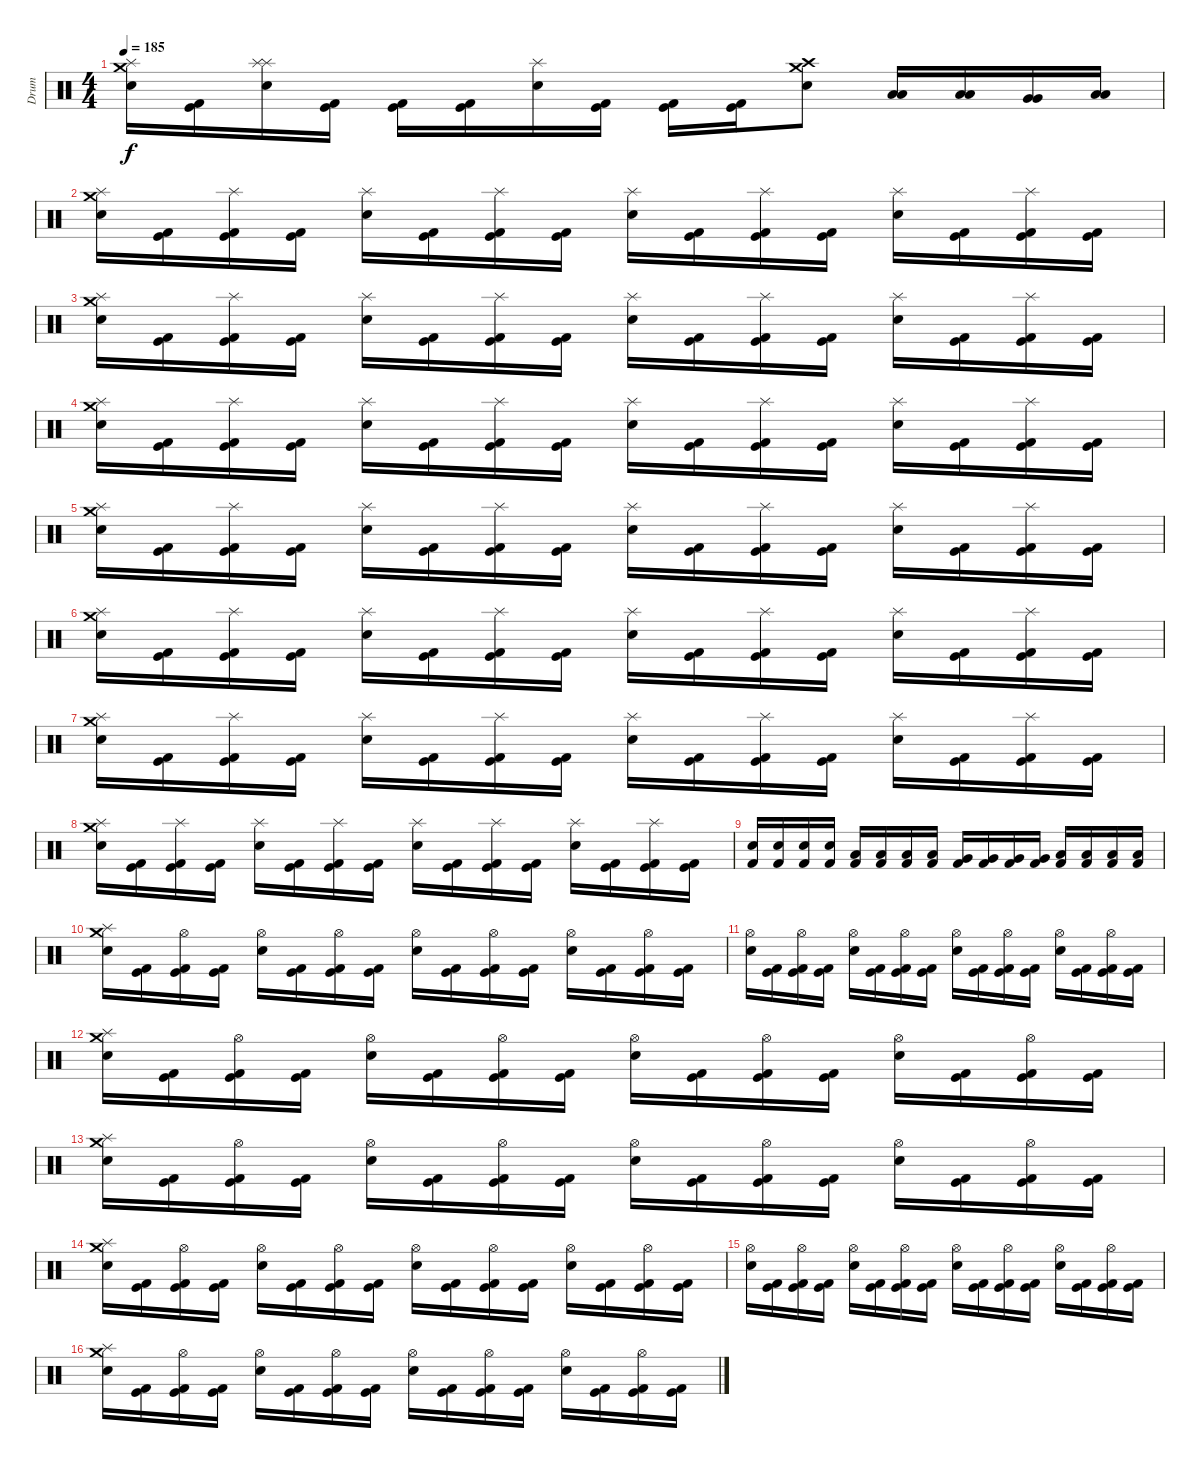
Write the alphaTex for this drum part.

\track ("Drum" "Drum") {instrument percussion}
\staff {score}
\articulation defaults
\ts (4 4)
\tempo 185
\clef neutral
\ks c
("Crash medium (hit)" "Splash (hit)" "Snare (hit) 2").16{dy f} ("Kick (hit)" "Kick (hit) 2").16 ("Splash (hit)" "Splash (hit)" "Snare (hit) 2").16 ("Kick (hit)" "Kick (hit) 2").16 ("Kick (hit)" "Kick (hit) 2").16 ("Kick (hit)" "Kick (hit) 2").16 ("Splash (hit)" "Snare (hit) 2").16 ("Kick (hit)" "Kick (hit) 2").16 ("Kick (hit)" "Kick (hit) 2").16 ("Kick (hit)" "Kick (hit) 2").16 ("Crash high (hit)" "Crash medium (hit)" "Snare (hit) 2").8 ("Low Tom (hit)" "Low Tom (hit)").16 ("Low Tom (hit)" "Low Tom (hit)").16 ("Very Low Tom (hit)" "Very Low Tom (hit)").16 ("Low Floor Tom (hit)" "Low Floor Tom (hit)").16 |
("Crash medium (hit)" "Splash (hit)" "Snare (hit) 2").16 ("Kick (hit)" "Kick (hit) 2").16 ("Splash (hit)" "Kick (hit)" "Kick (hit) 2").16 ("Kick (hit)" "Kick (hit) 2").16 ("Splash (hit)" "Snare (hit) 2").16 ("Kick (hit)" "Kick (hit) 2").16 ("Splash (hit)" "Kick (hit)" "Kick (hit) 2").16 ("Kick (hit)" "Kick (hit) 2").16 ("Splash (hit)" "Snare (hit) 2").16 ("Kick (hit)" "Kick (hit) 2").16 ("Splash (hit)" "Kick (hit)" "Kick (hit) 2").16 ("Kick (hit)" "Kick (hit) 2").16 ("Splash (hit)" "Snare (hit) 2").16 ("Kick (hit)" "Kick (hit) 2").16 ("Splash (hit)" "Kick (hit)" "Kick (hit) 2").16 ("Kick (hit)" "Kick (hit) 2").16 |
("Crash medium (hit)" "Splash (hit)" "Snare (hit) 2").16 ("Kick (hit)" "Kick (hit) 2").16 ("Splash (hit)" "Kick (hit)" "Kick (hit) 2").16 ("Kick (hit)" "Kick (hit) 2").16 ("Splash (hit)" "Snare (hit) 2").16 ("Kick (hit)" "Kick (hit) 2").16 ("Splash (hit)" "Kick (hit)" "Kick (hit) 2").16 ("Kick (hit)" "Kick (hit) 2").16 ("Splash (hit)" "Snare (hit) 2").16 ("Kick (hit)" "Kick (hit) 2").16 ("Splash (hit)" "Kick (hit)" "Kick (hit) 2").16 ("Kick (hit)" "Kick (hit) 2").16 ("Splash (hit)" "Snare (hit) 2").16 ("Kick (hit)" "Kick (hit) 2").16 ("Splash (hit)" "Kick (hit)" "Kick (hit) 2").16 ("Kick (hit)" "Kick (hit) 2").16 |
("Crash medium (hit)" "Splash (hit)" "Snare (hit) 2").16 ("Kick (hit)" "Kick (hit) 2").16 ("Splash (hit)" "Kick (hit)" "Kick (hit) 2").16 ("Kick (hit)" "Kick (hit) 2").16 ("Splash (hit)" "Snare (hit) 2").16 ("Kick (hit)" "Kick (hit) 2").16 ("Splash (hit)" "Kick (hit)" "Kick (hit) 2").16 ("Kick (hit)" "Kick (hit) 2").16 ("Splash (hit)" "Snare (hit) 2").16 ("Kick (hit)" "Kick (hit) 2").16 ("Splash (hit)" "Kick (hit)" "Kick (hit) 2").16 ("Kick (hit)" "Kick (hit) 2").16 ("Splash (hit)" "Snare (hit) 2").16 ("Kick (hit)" "Kick (hit) 2").16 ("Splash (hit)" "Kick (hit)" "Kick (hit) 2").16 ("Kick (hit)" "Kick (hit) 2").16 |
("Crash medium (hit)" "Splash (hit)" "Snare (hit) 2").16 ("Kick (hit)" "Kick (hit) 2").16 ("Splash (hit)" "Kick (hit)" "Kick (hit) 2").16 ("Kick (hit)" "Kick (hit) 2").16 ("Splash (hit)" "Snare (hit) 2").16 ("Kick (hit)" "Kick (hit) 2").16 ("Splash (hit)" "Kick (hit)" "Kick (hit) 2").16 ("Kick (hit)" "Kick (hit) 2").16 ("Splash (hit)" "Snare (hit) 2").16 ("Kick (hit)" "Kick (hit) 2").16 ("Splash (hit)" "Kick (hit)" "Kick (hit) 2").16 ("Kick (hit)" "Kick (hit) 2").16 ("Splash (hit)" "Snare (hit) 2").16 ("Kick (hit)" "Kick (hit) 2").16 ("Splash (hit)" "Kick (hit)" "Kick (hit) 2").16 ("Kick (hit)" "Kick (hit) 2").16 |
("Crash medium (hit)" "Splash (hit)" "Snare (hit) 2").16 ("Kick (hit)" "Kick (hit) 2").16 ("Splash (hit)" "Kick (hit)" "Kick (hit) 2").16 ("Kick (hit)" "Kick (hit) 2").16 ("Splash (hit)" "Snare (hit) 2").16 ("Kick (hit)" "Kick (hit) 2").16 ("Splash (hit)" "Kick (hit)" "Kick (hit) 2").16 ("Kick (hit)" "Kick (hit) 2").16 ("Splash (hit)" "Snare (hit) 2").16 ("Kick (hit)" "Kick (hit) 2").16 ("Splash (hit)" "Kick (hit)" "Kick (hit) 2").16 ("Kick (hit)" "Kick (hit) 2").16 ("Splash (hit)" "Snare (hit) 2").16 ("Kick (hit)" "Kick (hit) 2").16 ("Splash (hit)" "Kick (hit)" "Kick (hit) 2").16 ("Kick (hit)" "Kick (hit) 2").16 |
("Crash medium (hit)" "Splash (hit)" "Snare (hit) 2").16 ("Kick (hit)" "Kick (hit) 2").16 ("Splash (hit)" "Kick (hit)" "Kick (hit) 2").16 ("Kick (hit)" "Kick (hit) 2").16 ("Splash (hit)" "Snare (hit) 2").16 ("Kick (hit)" "Kick (hit) 2").16 ("Splash (hit)" "Kick (hit)" "Kick (hit) 2").16 ("Kick (hit)" "Kick (hit) 2").16 ("Splash (hit)" "Snare (hit) 2").16 ("Kick (hit)" "Kick (hit) 2").16 ("Splash (hit)" "Kick (hit)" "Kick (hit) 2").16 ("Kick (hit)" "Kick (hit) 2").16 ("Splash (hit)" "Snare (hit) 2").16 ("Kick (hit)" "Kick (hit) 2").16 ("Splash (hit)" "Kick (hit)" "Kick (hit) 2").16 ("Kick (hit)" "Kick (hit) 2").16 |
("Crash medium (hit)" "Splash (hit)" "Snare (hit) 2").16 ("Kick (hit)" "Kick (hit) 2").16 ("Splash (hit)" "Kick (hit)" "Kick (hit) 2").16 ("Kick (hit)" "Kick (hit) 2").16 ("Splash (hit)" "Snare (hit) 2").16 ("Kick (hit)" "Kick (hit) 2").16 ("Splash (hit)" "Kick (hit)" "Kick (hit) 2").16 ("Kick (hit)" "Kick (hit) 2").16 ("Splash (hit)" "Snare (hit) 2").16 ("Kick (hit)" "Kick (hit) 2").16 ("Splash (hit)" "Kick (hit)" "Kick (hit) 2").16 ("Kick (hit)" "Kick (hit) 2").16 ("Splash (hit)" "Snare (hit) 2").16 ("Kick (hit)" "Kick (hit) 2").16 ("Splash (hit)" "Kick (hit)" "Kick (hit) 2").16 ("Kick (hit)" "Kick (hit) 2").16 |
("Snare (hit) 2" "Kick (hit) 2").16 ("Snare (hit) 2" "Kick (hit) 2").16 ("Snare (hit) 2" "Kick (hit) 2").16 ("Snare (hit) 2" "Kick (hit) 2").16 ("Low Tom (hit)" "Kick (hit) 2").16 ("Low Tom (hit)" "Kick (hit) 2").16 ("Low Tom (hit)" "Kick (hit) 2").16 ("Low Tom (hit)" "Kick (hit) 2").16 ("Very Low Tom (hit)" "Kick (hit) 2").16 ("Very Low Tom (hit)" "Kick (hit) 2").16 ("Very Low Tom (hit)" "Kick (hit) 2").16 ("Very Low Tom (hit)" "Kick (hit) 2").16 ("Low Floor Tom (hit)" "Kick (hit) 2").16 ("Low Floor Tom (hit)" "Kick (hit) 2").16 ("Low Floor Tom (hit)" "Kick (hit) 2").16 ("Low Floor Tom (hit)" "Kick (hit) 2").16 |
("Crash medium (hit)" "Splash (hit)" "Snare (hit) 2").16 ("Kick (hit)" "Kick (hit) 2").16 ("Hi-Hat (open)" "Kick (hit)" "Kick (hit) 2").16 ("Kick (hit)" "Kick (hit) 2").16 ("Hi-Hat (open)" "Snare (hit) 2").16 ("Kick (hit)" "Kick (hit) 2").16 ("Hi-Hat (open)" "Kick (hit)" "Kick (hit) 2").16 ("Kick (hit)" "Kick (hit) 2").16 ("Hi-Hat (open)" "Snare (hit) 2").16 ("Kick (hit)" "Kick (hit) 2").16 ("Hi-Hat (open)" "Kick (hit)" "Kick (hit) 2").16 ("Kick (hit)" "Kick (hit) 2").16 ("Hi-Hat (open)" "Snare (hit) 2").16 ("Kick (hit)" "Kick (hit) 2").16 ("Hi-Hat (open)" "Kick (hit)" "Kick (hit) 2").16 ("Kick (hit)" "Kick (hit) 2").16 |
("Hi-Hat (open)" "Snare (hit) 2").16 ("Kick (hit)" "Kick (hit) 2").16 ("Hi-Hat (open)" "Kick (hit)" "Kick (hit) 2").16 ("Kick (hit)" "Kick (hit) 2").16 ("Hi-Hat (open)" "Snare (hit) 2").16 ("Kick (hit)" "Kick (hit) 2").16 ("Hi-Hat (open)" "Kick (hit)" "Kick (hit) 2").16 ("Kick (hit)" "Kick (hit) 2").16 ("Hi-Hat (open)" "Snare (hit) 2").16 ("Kick (hit)" "Kick (hit) 2").16 ("Hi-Hat (open)" "Kick (hit)" "Kick (hit) 2").16 ("Kick (hit)" "Kick (hit) 2").16 ("Hi-Hat (open)" "Snare (hit) 2").16 ("Kick (hit)" "Kick (hit) 2").16 ("Hi-Hat (open)" "Kick (hit)" "Kick (hit) 2").16 ("Kick (hit)" "Kick (hit) 2").16 |
("Crash medium (hit)" "Splash (hit)" "Snare (hit) 2").16 ("Kick (hit)" "Kick (hit) 2").16 ("Hi-Hat (open)" "Kick (hit)" "Kick (hit) 2").16 ("Kick (hit)" "Kick (hit) 2").16 ("Hi-Hat (open)" "Snare (hit) 2").16 ("Kick (hit)" "Kick (hit) 2").16 ("Hi-Hat (open)" "Kick (hit)" "Kick (hit) 2").16 ("Kick (hit)" "Kick (hit) 2").16 ("Hi-Hat (open)" "Snare (hit) 2").16 ("Kick (hit)" "Kick (hit) 2").16 ("Hi-Hat (open)" "Kick (hit)" "Kick (hit) 2").16 ("Kick (hit)" "Kick (hit) 2").16 ("Hi-Hat (open)" "Snare (hit) 2").16 ("Kick (hit)" "Kick (hit) 2").16 ("Hi-Hat (open)" "Kick (hit)" "Kick (hit) 2").16 ("Kick (hit)" "Kick (hit) 2").16 |
("Crash medium (hit)" "Splash (hit)" "Snare (hit) 2").16 ("Kick (hit)" "Kick (hit) 2").16 ("Hi-Hat (open)" "Kick (hit)" "Kick (hit) 2").16 ("Kick (hit)" "Kick (hit) 2").16 ("Hi-Hat (open)" "Snare (hit) 2").16 ("Kick (hit)" "Kick (hit) 2").16 ("Hi-Hat (open)" "Kick (hit)" "Kick (hit) 2").16 ("Kick (hit)" "Kick (hit) 2").16 ("Hi-Hat (open)" "Snare (hit) 2").16 ("Kick (hit)" "Kick (hit) 2").16 ("Hi-Hat (open)" "Kick (hit)" "Kick (hit) 2").16 ("Kick (hit)" "Kick (hit) 2").16 ("Hi-Hat (open)" "Snare (hit) 2").16 ("Kick (hit)" "Kick (hit) 2").16 ("Hi-Hat (open)" "Kick (hit)" "Kick (hit) 2").16 ("Kick (hit)" "Kick (hit) 2").16 |
("Crash medium (hit)" "Splash (hit)" "Snare (hit) 2").16 ("Kick (hit)" "Kick (hit) 2").16 ("Hi-Hat (open)" "Kick (hit)" "Kick (hit) 2").16 ("Kick (hit)" "Kick (hit) 2").16 ("Hi-Hat (open)" "Snare (hit) 2").16 ("Kick (hit)" "Kick (hit) 2").16 ("Hi-Hat (open)" "Kick (hit)" "Kick (hit) 2").16 ("Kick (hit)" "Kick (hit) 2").16 ("Hi-Hat (open)" "Snare (hit) 2").16 ("Kick (hit)" "Kick (hit) 2").16 ("Hi-Hat (open)" "Kick (hit)" "Kick (hit) 2").16 ("Kick (hit)" "Kick (hit) 2").16 ("Hi-Hat (open)" "Snare (hit) 2").16 ("Kick (hit)" "Kick (hit) 2").16 ("Hi-Hat (open)" "Kick (hit)" "Kick (hit) 2").16 ("Kick (hit)" "Kick (hit) 2").16 |
("Hi-Hat (open)" "Snare (hit) 2").16 ("Kick (hit)" "Kick (hit) 2").16 ("Hi-Hat (open)" "Kick (hit)" "Kick (hit) 2").16 ("Kick (hit)" "Kick (hit) 2").16 ("Hi-Hat (open)" "Snare (hit) 2").16 ("Kick (hit)" "Kick (hit) 2").16 ("Hi-Hat (open)" "Kick (hit)" "Kick (hit) 2").16 ("Kick (hit)" "Kick (hit) 2").16 ("Hi-Hat (open)" "Snare (hit) 2").16 ("Kick (hit)" "Kick (hit) 2").16 ("Hi-Hat (open)" "Kick (hit)" "Kick (hit) 2").16 ("Kick (hit)" "Kick (hit) 2").16 ("Hi-Hat (open)" "Snare (hit) 2").16 ("Kick (hit)" "Kick (hit) 2").16 ("Hi-Hat (open)" "Kick (hit)" "Kick (hit) 2").16 ("Kick (hit)" "Kick (hit) 2").16 |
("Crash medium (hit)" "Splash (hit)" "Snare (hit) 2").16 ("Kick (hit)" "Kick (hit) 2").16 ("Hi-Hat (open)" "Kick (hit)" "Kick (hit) 2").16 ("Kick (hit)" "Kick (hit) 2").16 ("Hi-Hat (open)" "Snare (hit) 2").16 ("Kick (hit)" "Kick (hit) 2").16 ("Hi-Hat (open)" "Kick (hit)" "Kick (hit) 2").16 ("Kick (hit)" "Kick (hit) 2").16 ("Hi-Hat (open)" "Snare (hit) 2").16 ("Kick (hit)" "Kick (hit) 2").16 ("Hi-Hat (open)" "Kick (hit)" "Kick (hit) 2").16 ("Kick (hit)" "Kick (hit) 2").16 ("Hi-Hat (open)" "Snare (hit) 2").16 ("Kick (hit)" "Kick (hit) 2").16 ("Hi-Hat (open)" "Kick (hit)" "Kick (hit) 2").16 ("Kick (hit)" "Kick (hit) 2").16
